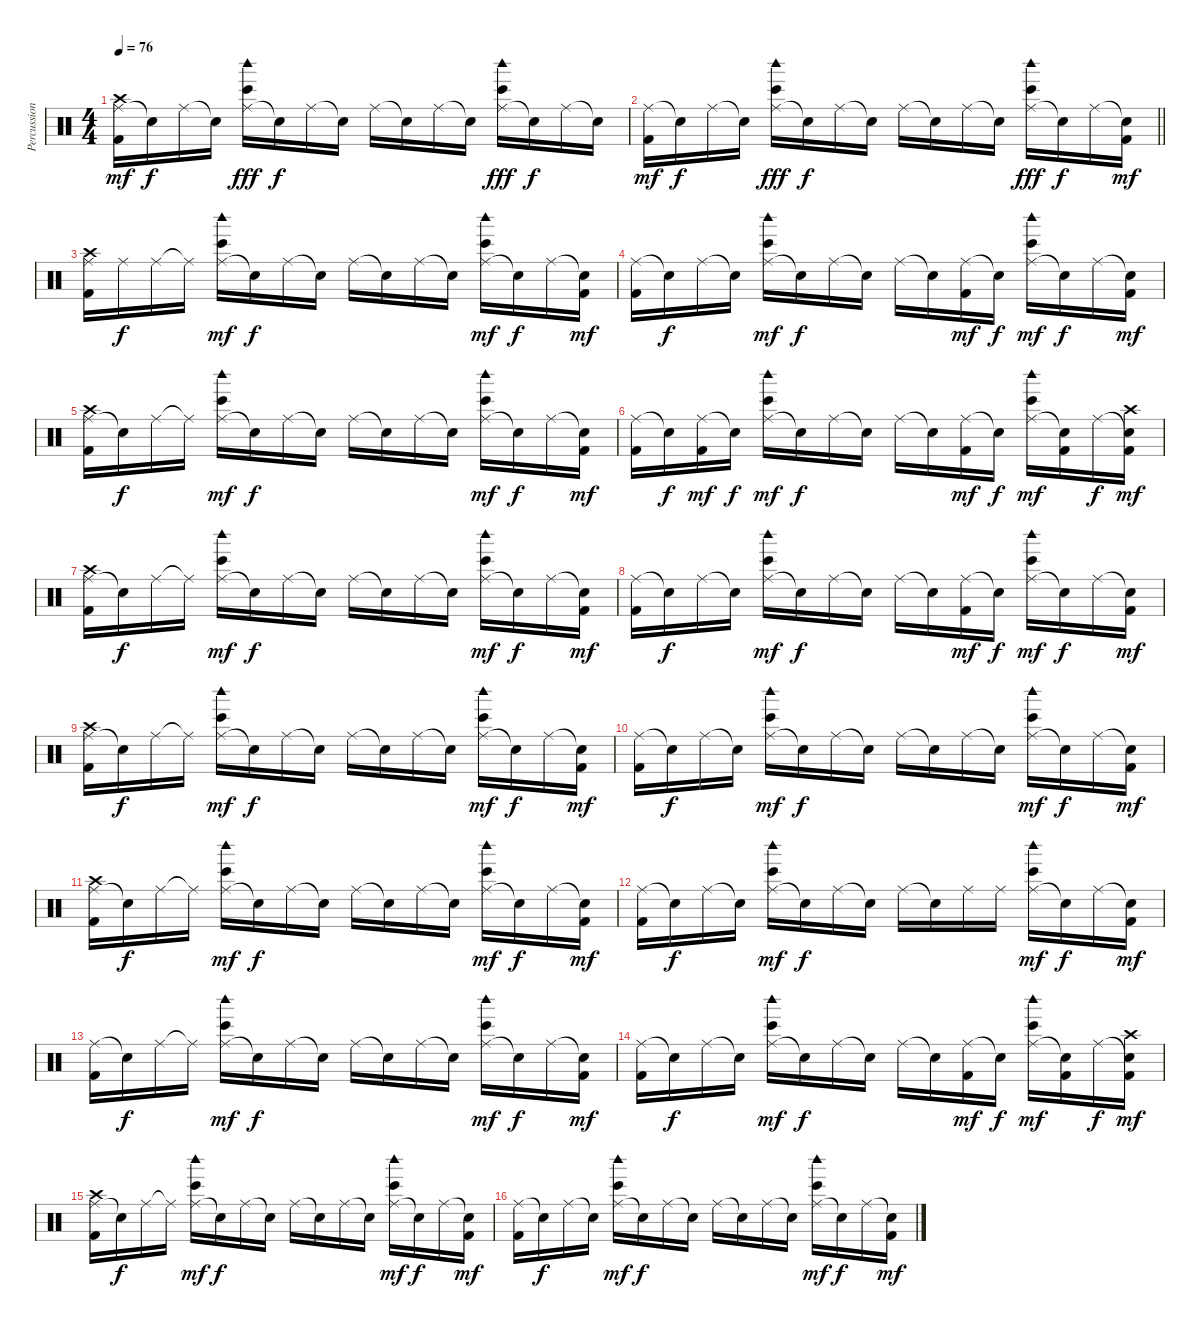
\track ("Percussion" "Percussion") {instrument percussion}
\staff {score}
\articulation defaults
\ts (4 4)
\tempo 76
\clef neutral
\ks c
("Ride (middle)" "Crash high (hit)" "Kick (hit) 2").16{dy mf} "Snare (hit)"{t}.16{dy f} "Ride (middle)".16 "Snare (hit)"{t}.16 ("Ride (middle)" "Woodblock high (hit)" "Bongo High (hit)").16{dy fff} "Snare (hit)"{t}.16{dy f} "Ride (middle)".16 "Snare (hit)"{t}.16 "Ride (middle)".16 "Snare (hit)"{t}.16 "Ride (middle)".16 "Snare (hit)"{t}.16 ("Ride (middle)" "Woodblock high (hit)" "Bongo High (hit)").16{dy fff} "Snare (hit)"{t}.16{dy f} "Ride (middle)".16 "Snare (hit)"{t}.16 |
\barLineRight lightlight
("Ride (middle)" "Kick (hit) 2").16{dy mf} "Snare (hit)"{t}.16{dy f} "Ride (middle)".16 "Snare (hit)"{t}.16 ("Ride (middle)" "Woodblock high (hit)" "Bongo High (hit)").16{dy fff} "Snare (hit)"{t}.16{dy f} "Ride (middle)".16 "Snare (hit)"{t}.16 "Ride (middle)".16 "Snare (hit)"{t}.16 "Ride (middle)".16 "Snare (hit)"{t}.16 ("Ride (middle)" "Woodblock high (hit)" "Bongo High (hit)").16{dy fff} "Snare (hit)"{t}.16{dy f} "Ride (middle)".16 ("Snare (hit)"{t} "Kick (hit) 2").16{dy mf} |
("Ride (middle)" "Crash high (hit)" "Kick (hit) 2").16 "Ride (middle)".16{dy f} "Ride (middle)".16 "Ride (middle)"{t}.16 ("Ride (middle)" "Woodblock high (hit)" "Bongo High (hit)").16{dy mf} "Snare (hit)"{t}.16{dy f} "Ride (middle)".16 "Snare (hit)"{t}.16 "Ride (middle)".16 "Snare (hit)"{t}.16 "Ride (middle)".16 "Snare (hit)"{t}.16 ("Ride (middle)" "Woodblock high (hit)" "Bongo High (hit)").16{dy mf} "Snare (hit)"{t}.16{dy f} "Ride (middle)".16 ("Snare (hit)"{t} "Kick (hit) 2").16{dy mf} |
("Ride (middle)" "Kick (hit) 2").16 "Snare (hit)"{t}.16{dy f} "Ride (middle)".16 "Snare (hit)"{t}.16 ("Ride (middle)" "Woodblock high (hit)" "Bongo High (hit)").16{dy mf} "Snare (hit)"{t}.16{dy f} "Ride (middle)".16 "Snare (hit)"{t}.16 "Ride (middle)".16 "Snare (hit)"{t}.16 ("Ride (middle)" "Kick (hit) 2").16{dy mf} "Snare (hit)"{t}.16{dy f} ("Ride (middle)" "Woodblock high (hit)" "Bongo High (hit)").16{dy mf} "Snare (hit)"{t}.16{dy f} "Ride (middle)".16 ("Snare (hit)"{t} "Kick (hit) 2").16{dy mf} |
("Ride (middle)" "Crash high (hit)" "Kick (hit) 2").16 "Snare (hit)"{t}.16{dy f} "Ride (middle)".16 "Ride (middle)"{t}.16 ("Ride (middle)" "Woodblock high (hit)" "Bongo High (hit)").16{dy mf} "Snare (hit)"{t}.16{dy f} "Ride (middle)".16 "Snare (hit)"{t}.16 "Ride (middle)".16 "Snare (hit)"{t}.16 "Ride (middle)".16 "Snare (hit)"{t}.16 ("Ride (middle)" "Woodblock high (hit)" "Bongo High (hit)").16{dy mf} "Snare (hit)"{t}.16{dy f} "Ride (middle)".16 ("Snare (hit)"{t} "Kick (hit) 2").16{dy mf} |
("Ride (middle)" "Kick (hit) 2").16 "Snare (hit)"{t}.16{dy f} ("Ride (middle)" "Kick (hit) 2").16{dy mf} "Snare (hit)"{t}.16{dy f} ("Ride (middle)" "Woodblock high (hit)" "Bongo High (hit)").16{dy mf} "Snare (hit)"{t}.16{dy f} "Ride (middle)".16 "Snare (hit)"{t}.16 "Ride (middle)".16 "Snare (hit)"{t}.16 ("Ride (middle)" "Kick (hit) 2").16{dy mf} "Snare (hit)"{t}.16{dy f} ("Ride (middle)" "Woodblock high (hit)" "Bongo High (hit)").16{dy mf} ("Snare (hit)"{t} "Kick (hit) 2").16 "Ride (middle)".16{dy f} ("Snare (hit)"{t} "Crash high (hit)" "Kick (hit) 2").16{dy mf} |
("Ride (middle)" "Crash high (hit)" "Kick (hit) 2").16 "Snare (hit)"{t}.16{dy f} "Ride (middle)".16 "Ride (middle)"{t}.16 ("Ride (middle)" "Woodblock high (hit)" "Bongo High (hit)").16{dy mf} "Snare (hit)"{t}.16{dy f} "Ride (middle)".16 "Snare (hit)"{t}.16 "Ride (middle)".16 "Snare (hit)"{t}.16 "Ride (middle)".16 "Snare (hit)"{t}.16 ("Ride (middle)" "Woodblock high (hit)" "Bongo High (hit)").16{dy mf} "Snare (hit)"{t}.16{dy f} "Ride (middle)".16 ("Snare (hit)"{t} "Kick (hit) 2").16{dy mf} |
("Ride (middle)" "Kick (hit) 2").16 "Snare (hit)"{t}.16{dy f} "Ride (middle)".16 "Snare (hit)"{t}.16 ("Ride (middle)" "Woodblock high (hit)" "Bongo High (hit)").16{dy mf} "Snare (hit)"{t}.16{dy f} "Ride (middle)".16 "Snare (hit)"{t}.16 "Ride (middle)".16 "Snare (hit)"{t}.16 ("Ride (middle)" "Kick (hit) 2").16{dy mf} "Snare (hit)"{t}.16{dy f} ("Ride (middle)" "Woodblock high (hit)" "Bongo High (hit)").16{dy mf} "Snare (hit)"{t}.16{dy f} "Ride (middle)".16 ("Snare (hit)"{t} "Kick (hit) 2").16{dy mf} |
("Ride (middle)" "Crash high (hit)" "Kick (hit) 2").16 "Snare (hit)"{t}.16{dy f} "Ride (middle)".16 "Ride (middle)"{t}.16 ("Ride (middle)" "Woodblock high (hit)" "Bongo High (hit)").16{dy mf} "Snare (hit)"{t}.16{dy f} "Ride (middle)".16 "Snare (hit)"{t}.16 "Ride (middle)".16 "Snare (hit)"{t}.16 "Ride (middle)".16 "Snare (hit)"{t}.16 ("Ride (middle)" "Woodblock high (hit)" "Bongo High (hit)").16{dy mf} "Snare (hit)"{t}.16{dy f} "Ride (middle)".16 ("Snare (hit)"{t} "Kick (hit) 2").16{dy mf} |
("Ride (middle)" "Kick (hit) 2").16 "Snare (hit)"{t}.16{dy f} "Ride (middle)".16 "Snare (hit)"{t}.16 ("Ride (middle)" "Woodblock high (hit)" "Bongo High (hit)").16{dy mf} "Snare (hit)"{t}.16{dy f} "Ride (middle)".16 "Snare (hit)"{t}.16 "Ride (middle)".16 "Snare (hit)"{t}.16 "Ride (middle)".16 "Snare (hit)"{t}.16 ("Ride (middle)" "Woodblock high (hit)" "Bongo High (hit)").16{dy mf} "Snare (hit)"{t}.16{dy f} "Ride (middle)".16 ("Snare (hit)"{t} "Kick (hit) 2").16{dy mf} |
("Ride (middle)" "Crash high (hit)" "Kick (hit) 2").16 "Snare (hit)"{t}.16{dy f} "Ride (middle)".16 "Ride (middle)"{t}.16 ("Ride (middle)" "Woodblock high (hit)" "Bongo High (hit)").16{dy mf} "Snare (hit)"{t}.16{dy f} "Ride (middle)".16 "Snare (hit)"{t}.16 "Ride (middle)".16 "Snare (hit)"{t}.16 "Ride (middle)".16 "Snare (hit)"{t}.16 ("Ride (middle)" "Woodblock high (hit)" "Bongo High (hit)").16{dy mf} "Snare (hit)"{t}.16{dy f} "Ride (middle)".16 ("Snare (hit)"{t} "Kick (hit) 2").16{dy mf} |
("Ride (middle)" "Kick (hit) 2").16 "Snare (hit)"{t}.16{dy f} "Ride (middle)".16 "Snare (hit)"{t}.16 ("Ride (middle)" "Woodblock high (hit)" "Bongo High (hit)").16{dy mf} "Snare (hit)"{t}.16{dy f} "Ride (middle)".16 "Snare (hit)"{t}.16 "Ride (middle)".16 "Snare (hit)"{t}.16 "Ride (middle)".16 "Ride (middle)".16 ("Ride (middle)" "Woodblock high (hit)" "Bongo High (hit)").16{dy mf} "Snare (hit)"{t}.16{dy f} "Ride (middle)".16 ("Snare (hit)"{t} "Kick (hit) 2").16{dy mf} |
("Ride (middle)" "Kick (hit) 2").16 "Snare (hit)"{t}.16{dy f} "Ride (middle)".16 "Ride (middle)"{t}.16 ("Ride (middle)" "Woodblock high (hit)" "Bongo High (hit)").16{dy mf} "Snare (hit)"{t}.16{dy f} "Ride (middle)".16 "Snare (hit)"{t}.16 "Ride (middle)".16 "Snare (hit)"{t}.16 "Ride (middle)".16 "Snare (hit)"{t}.16 ("Ride (middle)" "Woodblock high (hit)" "Bongo High (hit)").16{dy mf} "Snare (hit)"{t}.16{dy f} "Ride (middle)".16 ("Snare (hit)"{t} "Kick (hit) 2").16{dy mf} |
("Ride (middle)" "Kick (hit) 2").16 "Snare (hit)"{t}.16{dy f} "Ride (middle)".16 "Snare (hit)"{t}.16 ("Ride (middle)" "Woodblock high (hit)" "Bongo High (hit)").16{dy mf} "Snare (hit)"{t}.16{dy f} "Ride (middle)".16 "Snare (hit)"{t}.16 "Ride (middle)".16 "Snare (hit)"{t}.16 ("Ride (middle)" "Kick (hit) 2").16{dy mf} "Snare (hit)"{t}.16{dy f} ("Ride (middle)" "Woodblock high (hit)" "Bongo High (hit)").16{dy mf} ("Snare (hit)"{t} "Kick (hit) 2").16 "Ride (middle)".16{dy f} ("Snare (hit)"{t} "Crash high (hit)" "Kick (hit) 2").16{dy mf} |
("Ride (middle)" "Crash high (hit)" "Kick (hit) 2").16 "Snare (hit)"{t}.16{dy f} "Ride (middle)".16 "Ride (middle)"{t}.16 ("Ride (middle)" "Woodblock high (hit)" "Bongo High (hit)").16{dy mf} "Snare (hit)"{t}.16{dy f} "Ride (middle)".16 "Snare (hit)"{t}.16 "Ride (middle)".16 "Snare (hit)"{t}.16 "Ride (middle)".16 "Snare (hit)"{t}.16 ("Ride (middle)" "Woodblock high (hit)" "Bongo High (hit)").16{dy mf} "Snare (hit)"{t}.16{dy f} "Ride (middle)".16 ("Snare (hit)"{t} "Kick (hit) 2").16{dy mf} |
("Ride (middle)" "Kick (hit) 2").16 "Snare (hit)"{t}.16{dy f} "Ride (middle)".16 "Snare (hit)"{t}.16 ("Ride (middle)" "Woodblock high (hit)" "Bongo High (hit)").16{dy mf} "Snare (hit)"{t}.16{dy f} "Ride (middle)".16 "Snare (hit)"{t}.16 "Ride (middle)".16 "Snare (hit)"{t}.16 "Ride (middle)".16 "Snare (hit)"{t}.16 ("Ride (middle)" "Woodblock high (hit)" "Bongo High (hit)").16{dy mf} "Snare (hit)"{t}.16{dy f} "Ride (middle)".16 ("Snare (hit)"{t} "Kick (hit) 2").16{dy mf}
